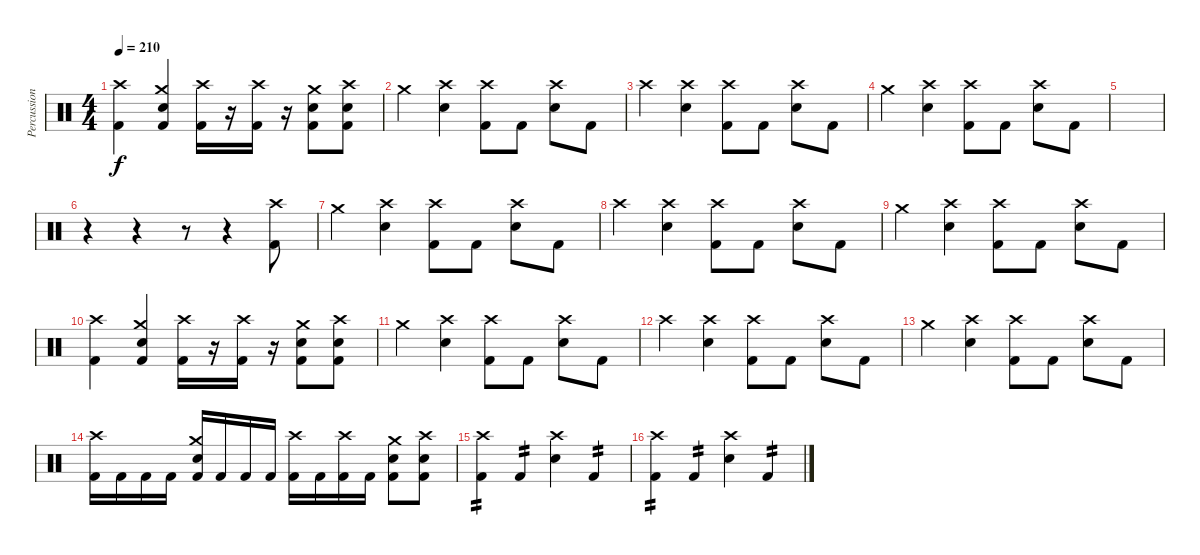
\track ("Percussion" "Percussion") {instrument percussion}
\staff {score}
\articulation defaults
\ts (4 4)
\tempo 210
\clef neutral
\ks c
("Crash high (hit)" "Kick (hit) 2").4{dy f} ("Crash medium (hit)" "Electric Snare (hit)" "Kick (hit) 2").4 ("Crash high (hit)" "Kick (hit) 2").16 r.16 ("Crash high (hit)" "Kick (hit) 2").16 r.16 ("Crash medium (hit)" "Electric Snare (hit)" "Kick (hit) 2").8 ("Crash high (hit)" "Electric Snare (hit)" "Kick (hit) 2").8 |
"Crash medium (hit)".4 ("Crash high (hit)" "Electric Snare (hit)").4 ("Crash high (hit)" "Kick (hit) 2").8 "Kick (hit) 2".8 ("Crash high (hit)" "Electric Snare (hit)").8 "Kick (hit) 2".8 |
"Crash high (hit)".4 ("Crash high (hit)" "Electric Snare (hit)").4 ("Crash high (hit)" "Kick (hit) 2").8 "Kick (hit) 2".8 ("Crash high (hit)" "Electric Snare (hit)").8 "Kick (hit) 2".8 |
"Crash medium (hit)".4 ("Crash high (hit)" "Electric Snare (hit)").4 ("Crash high (hit)" "Kick (hit) 2").8 "Kick (hit) 2".8 ("Crash high (hit)" "Electric Snare (hit)").8 "Kick (hit) 2".8 |
|
r.4 r.4 r.8 r.4 ("Crash high (hit)" "Kick (hit) 2").8 |
"Crash medium (hit)".4 ("Crash high (hit)" "Electric Snare (hit)").4 ("Crash high (hit)" "Kick (hit) 2").8 "Kick (hit) 2".8 ("Crash high (hit)" "Electric Snare (hit)").8 "Kick (hit) 2".8 |
"Crash high (hit)".4 ("Crash high (hit)" "Electric Snare (hit)").4 ("Crash high (hit)" "Kick (hit) 2").8 "Kick (hit) 2".8 ("Crash high (hit)" "Electric Snare (hit)").8 "Kick (hit) 2".8 |
"Crash medium (hit)".4 ("Crash high (hit)" "Electric Snare (hit)").4 ("Crash high (hit)" "Kick (hit) 2").8 "Kick (hit) 2".8 ("Crash high (hit)" "Electric Snare (hit)").8 "Kick (hit) 2".8 |
("Crash high (hit)" "Kick (hit) 2").4 ("Crash medium (hit)" "Electric Snare (hit)" "Kick (hit) 2").4 ("Crash high (hit)" "Kick (hit) 2").16 r.16 ("Crash high (hit)" "Kick (hit) 2").16 r.16 ("Crash medium (hit)" "Electric Snare (hit)" "Kick (hit) 2").8 ("Crash high (hit)" "Electric Snare (hit)" "Kick (hit) 2").8 |
"Crash medium (hit)".4 ("Crash high (hit)" "Electric Snare (hit)").4 ("Crash high (hit)" "Kick (hit) 2").8 "Kick (hit) 2".8 ("Crash high (hit)" "Electric Snare (hit)").8 "Kick (hit) 2".8 |
"Crash high (hit)".4 ("Crash high (hit)" "Electric Snare (hit)").4 ("Crash high (hit)" "Kick (hit) 2").8 "Kick (hit) 2".8 ("Crash high (hit)" "Electric Snare (hit)").8 "Kick (hit) 2".8 |
"Crash medium (hit)".4 ("Crash high (hit)" "Electric Snare (hit)").4 ("Crash high (hit)" "Kick (hit) 2").8 "Kick (hit) 2".8 ("Crash high (hit)" "Electric Snare (hit)").8 "Kick (hit) 2".8 |
("Crash high (hit)" "Kick (hit) 2").16 "Kick (hit) 2".16 "Kick (hit) 2".16 "Kick (hit) 2".16 ("Crash medium (hit)" "Electric Snare (hit)" "Kick (hit) 2").16 "Kick (hit) 2".16 "Kick (hit) 2".16 "Kick (hit) 2".16 ("Crash high (hit)" "Kick (hit) 2").16 "Kick (hit) 2".16 ("Crash high (hit)" "Kick (hit) 2").16 "Kick (hit) 2".16 ("Crash medium (hit)" "Electric Snare (hit)" "Kick (hit) 2").8 ("Crash high (hit)" "Electric Snare (hit)" "Kick (hit) 2").8 |
("Crash high (hit)" "Kick (hit) 2").4{tp 2} "Kick (hit) 2".4{tp 2} ("Crash high (hit)" "Electric Snare (hit)").4 "Kick (hit) 2".4{tp 2} |
("Crash high (hit)" "Kick (hit) 2").4{tp 2} "Kick (hit) 2".4{tp 2} ("Crash high (hit)" "Electric Snare (hit)").4 "Kick (hit) 2".4{tp 2}
